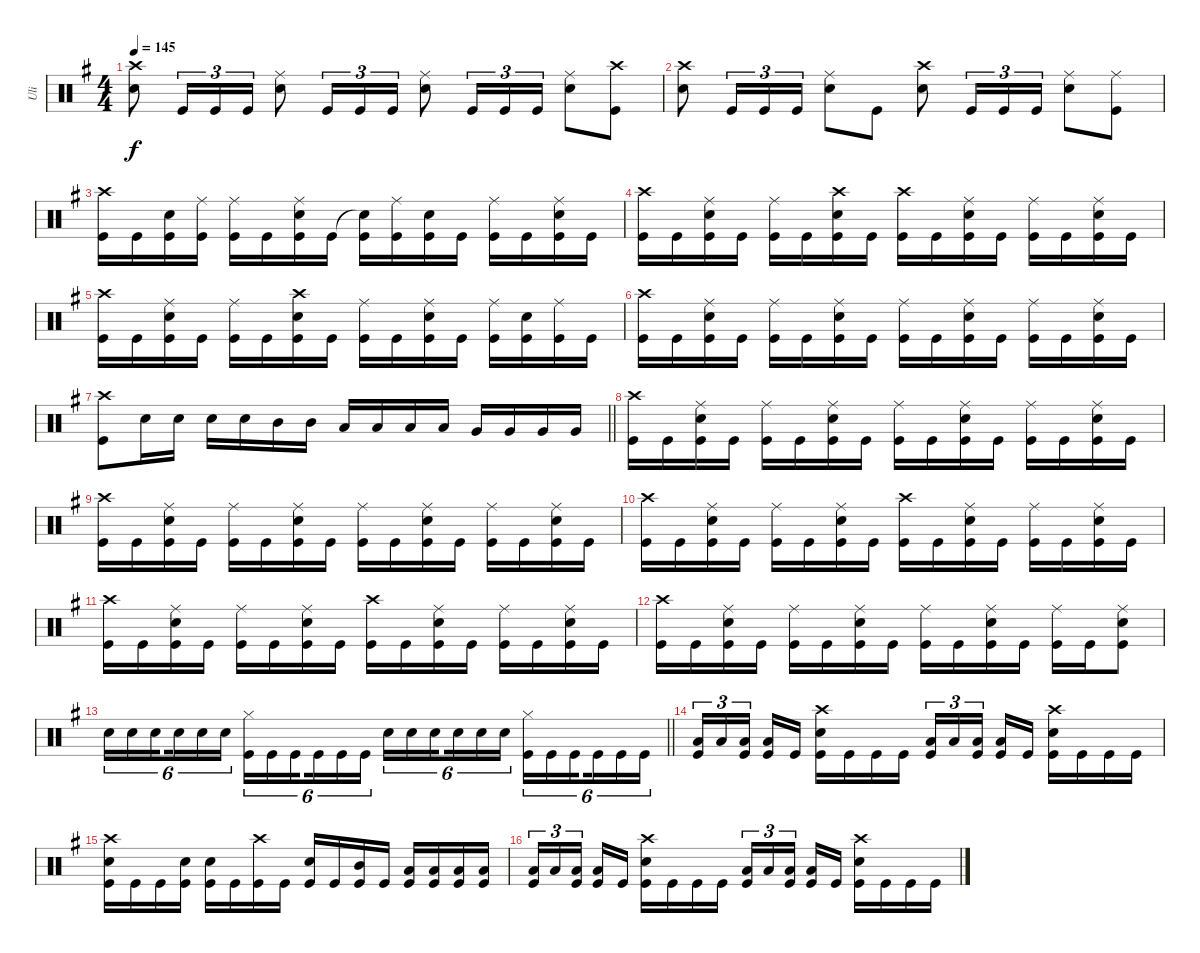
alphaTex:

\track ("Uli" "Uli") {instrument percussion}
\staff {score}
\articulation defaults
\ts (4 4)
\tempo 145
\clef neutral
\ks eminor
("Crash high (hit)" "Snare (hit) 2").8{dy f} "Kick (hit)".16{tu (3 2)} "Kick (hit)".16{tu (3 2)} "Kick (hit)".16{tu (3 2)} ("Ride (middle)" "Snare (hit) 2").8 "Kick (hit)".16{tu (3 2)} "Kick (hit)".16{tu (3 2)} "Kick (hit)".16{tu (3 2)} ("Ride (middle)" "Snare (hit) 2").8 "Kick (hit)".16{tu (3 2)} "Kick (hit)".16{tu (3 2)} "Kick (hit)".16{tu (3 2)} ("Ride (middle)" "Snare (hit) 2").8 ("Crash high (hit)" "Kick (hit)").8 |
("Crash high (hit)" "Snare (hit) 2").8 "Kick (hit)".16{tu (3 2)} "Kick (hit)".16{tu (3 2)} "Kick (hit)".16{tu (3 2)} ("Ride (middle)" "Snare (hit) 2").8 "Kick (hit)".8 ("Crash high (hit)" "Snare (hit) 2").8 "Kick (hit)".16{tu (3 2)} "Kick (hit)".16{tu (3 2)} "Kick (hit)".16{tu (3 2)} ("Ride (middle)" "Snare (hit) 2").8 ("Ride (middle)" "Kick (hit)").8 |
("Crash high (hit)" "Kick (hit)").16 "Kick (hit)".16 ("Snare (hit) 2" "Kick (hit)").16 ("Ride (middle)" "Kick (hit)").16 ("Ride (middle)" "Kick (hit)").16 "Kick (hit)".16 ("Ride (middle)" "Snare (hit) 2" "Kick (hit)").16 "Kick (hit)".16 ("Snare (hit)"{t} "Kick (hit)").16 ("Ride (middle)" "Kick (hit)").16 ("Snare (hit) 2" "Kick (hit)").16 "Kick (hit)".16 ("Ride (middle)" "Kick (hit)").16 "Kick (hit)".16 ("Ride (middle)" "Snare (hit) 2" "Kick (hit)").16 "Kick (hit)".16 |
("Crash high (hit)" "Kick (hit)").16 "Kick (hit)".16 ("Ride (middle)" "Snare (hit) 2" "Kick (hit)").16 "Kick (hit)".16 ("Ride (middle)" "Kick (hit)").16 "Kick (hit)".16 ("Crash high (hit)" "Snare (hit) 2" "Kick (hit)").16 "Kick (hit)".16 ("Crash high (hit)" "Kick (hit)").16 "Kick (hit)".16 ("Ride (middle)" "Snare (hit) 2" "Kick (hit)").16 "Kick (hit)".16 ("Ride (middle)" "Kick (hit)").16 "Kick (hit)".16 ("Ride (middle)" "Snare (hit) 2" "Kick (hit)").16 "Kick (hit)".16 |
("Crash high (hit)" "Kick (hit)").16 "Kick (hit)".16 ("Ride (middle)" "Snare (hit) 2" "Kick (hit)").16 "Kick (hit)".16 ("Ride (middle)" "Kick (hit)").16 "Kick (hit)".16 ("Crash high (hit)" "Snare (hit) 2" "Kick (hit)").16 "Kick (hit)".16 ("Ride (middle)" "Kick (hit)").16 "Kick (hit)".16 ("Ride (middle)" "Snare (hit) 2" "Kick (hit)").16 "Kick (hit)".16 ("Ride (middle)" "Kick (hit)").16 ("Snare (hit) 2" "Kick (hit)").16 ("Ride (middle)" "Kick (hit)").16 "Kick (hit)".16 |
("Crash high (hit)" "Kick (hit)").16 "Kick (hit)".16 ("Ride (middle)" "Snare (hit) 2" "Kick (hit)").16 "Kick (hit)".16 ("Ride (middle)" "Kick (hit)").16 "Kick (hit)".16 ("Ride (middle)" "Snare (hit) 2" "Kick (hit)").16 "Kick (hit)".16 ("Ride (middle)" "Kick (hit)").16 "Kick (hit)".16 ("Ride (middle)" "Snare (hit) 2" "Kick (hit)").16 "Kick (hit)".16 ("Ride (middle)" "Kick (hit)").16 "Kick (hit)".16 ("Ride (middle)" "Snare (hit) 2" "Kick (hit)").16 "Kick (hit)".16 |
\barLineRight lightlight
("Crash high (hit)" "Kick (hit)").8 "Snare (hit) 2".16 "Snare (hit) 2".16 "Snare (hit) 2".16 "Snare (hit) 2".16 "Mid Tom (hit)".16 "Mid Tom (hit)".16 "Low Tom (hit)".16 "Low Tom (hit)".16 "Low Tom (hit)".16 "Low Tom (hit)".16 "Very Low Tom (hit)".16 "Very Low Tom (hit)".16 "Very Low Tom (hit)".16 "Very Low Tom (hit)".16 |
("Crash high (hit)" "Kick (hit)").16 "Kick (hit)".16 ("Ride (middle)" "Snare (hit) 2" "Kick (hit)").16 "Kick (hit)".16 ("Ride (middle)" "Kick (hit)").16 "Kick (hit)".16 ("Ride (middle)" "Snare (hit) 2" "Kick (hit)").16 "Kick (hit)".16 ("Ride (middle)" "Kick (hit)").16 "Kick (hit)".16 ("Ride (middle)" "Snare (hit) 2" "Kick (hit)").16 "Kick (hit)".16 ("Ride (middle)" "Kick (hit)").16 "Kick (hit)".16 ("Ride (middle)" "Snare (hit) 2" "Kick (hit)").16 "Kick (hit)".16 |
("Crash high (hit)" "Kick (hit)").16 "Kick (hit)".16 ("Ride (middle)" "Snare (hit) 2" "Kick (hit)").16 "Kick (hit)".16 ("Ride (middle)" "Kick (hit)").16 "Kick (hit)".16 ("Ride (middle)" "Snare (hit) 2" "Kick (hit)").16 "Kick (hit)".16 ("Ride (middle)" "Kick (hit)").16 "Kick (hit)".16 ("Ride (middle)" "Snare (hit) 2" "Kick (hit)").16 "Kick (hit)".16 ("Ride (middle)" "Kick (hit)").16 "Kick (hit)".16 ("Ride (middle)" "Snare (hit) 2" "Kick (hit)").16 "Kick (hit)".16 |
("Crash high (hit)" "Kick (hit)").16 "Kick (hit)".16 ("Ride (middle)" "Snare (hit) 2" "Kick (hit)").16 "Kick (hit)".16 ("Ride (middle)" "Kick (hit)").16 "Kick (hit)".16 ("Ride (middle)" "Snare (hit) 2" "Kick (hit)").16 "Kick (hit)".16 ("Crash high (hit)" "Kick (hit)").16 "Kick (hit)".16 ("Ride (middle)" "Snare (hit) 2" "Kick (hit)").16 "Kick (hit)".16 ("Ride (middle)" "Kick (hit)").16 "Kick (hit)".16 ("Ride (middle)" "Snare (hit) 2" "Kick (hit)").16 "Kick (hit)".16 |
("Crash high (hit)" "Kick (hit)").16 "Kick (hit)".16 ("Ride (middle)" "Snare (hit) 2" "Kick (hit)").16 "Kick (hit)".16 ("Ride (middle)" "Kick (hit)").16 "Kick (hit)".16 ("Ride (middle)" "Snare (hit) 2" "Kick (hit)").16 "Kick (hit)".16 ("Crash high (hit)" "Kick (hit)").16 "Kick (hit)".16 ("Ride (middle)" "Snare (hit) 2" "Kick (hit)").16 "Kick (hit)".16 ("Ride (middle)" "Kick (hit)").16 "Kick (hit)".16 ("Ride (middle)" "Snare (hit) 2" "Kick (hit)").16 "Kick (hit)".16 |
("Crash high (hit)" "Kick (hit)").16 "Kick (hit)".16 ("Ride (middle)" "Snare (hit) 2" "Kick (hit)").16 "Kick (hit)".16 ("Ride (middle)" "Kick (hit)").16 "Kick (hit)".16 ("Ride (middle)" "Snare (hit) 2" "Kick (hit)").16 "Kick (hit)".16 ("Ride (middle)" "Kick (hit)").16 "Kick (hit)".16 ("Ride (middle)" "Snare (hit) 2" "Kick (hit)").16 "Kick (hit)".16 ("Ride (middle)" "Kick (hit)").16 "Kick (hit)".16 ("Ride (middle)" "Snare (hit) 2" "Kick (hit)").8 |
\barLineRight lightlight "Snare (hit) 2".16{tu (6 4)} "Snare (hit) 2".16{tu (6 4)} "Snare (hit) 2".16{tu (6 4) beam splitsecondary} "Snare (hit) 2".16{tu (6 4)} "Snare (hit) 2".16{tu (6 4)} "Snare (hit) 2".16{tu (6 4)}
("Hi-Hat (closed)" "Kick (hit)").16{tu (6 4)} "Kick (hit)".16{tu (6 4)} "Kick (hit)".16{tu (6 4) beam splitsecondary} "Kick (hit)".16{tu (6 4)} "Kick (hit)".16{tu (6 4)} "Kick (hit)".16{tu (6 4)} "Snare (hit) 2".16{tu (6 4)} "Snare (hit) 2".16{tu (6 4)} "Snare (hit) 2".16{tu (6 4) beam splitsecondary} "Snare (hit) 2".16{tu (6 4)} "Snare (hit) 2".16{tu (6 4)} "Snare (hit) 2".16{tu (6 4)} ("Hi-Hat (closed)" "Kick (hit)").16{tu (6 4)} "Kick (hit)".16{tu (6 4)} "Kick (hit)".16{tu (6 4) beam splitsecondary} "Kick (hit)".16{tu (6 4)} "Kick (hit)".16{tu (6 4)} "Kick (hit)".16{tu (6 4)} |
("Low Tom (hit)" "Kick (hit)").16{tu (3 2)} "Low Tom (hit)".16{tu (3 2)} ("Low Tom (hit)" "Kick (hit)").16{tu (3 2) beam splitsecondary} ("Low Tom (hit)" "Kick (hit)").16 "Kick (hit)".16 ("Crash high (hit)" "Snare (hit) 2" "Kick (hit)").16 "Kick (hit)".16 "Kick (hit)".16 "Kick (hit)".16 ("Low Tom (hit)" "Kick (hit)").16{tu (3 2)} "Low Tom (hit)".16{tu (3 2)} ("Low Tom (hit)" "Kick (hit)").16{tu (3 2) beam splitsecondary} ("Low Tom (hit)" "Kick (hit)").16 "Kick (hit)".16 ("Crash high (hit)" "Snare (hit) 2" "Kick (hit)").16 "Kick (hit)".16 "Kick (hit)".16 "Kick (hit)".16 |
("Crash high (hit)" "Snare (hit) 2" "Kick (hit)").16 "Kick (hit)".16 "Kick (hit)".16 ("Snare (hit) 2" "Kick (hit)").16 ("Snare (hit) 2" "Kick (hit)").16 "Kick (hit)".16 ("Crash high (hit)" "Kick (hit)").16 "Kick (hit)".16 ("Snare (hit) 2" "Kick (hit)").16 "Kick (hit)".16 ("Mid Tom (hit)" "Kick (hit)").16 "Kick (hit)".16 ("Low Tom (hit)" "Kick (hit)").16 ("Low Tom (hit)" "Kick (hit)").16 ("Low Tom (hit)" "Kick (hit)").16 ("Low Tom (hit)" "Kick (hit)").16 |
("Low Tom (hit)" "Kick (hit)").16{tu (3 2)} "Low Tom (hit)".16{tu (3 2)} ("Low Tom (hit)" "Kick (hit)").16{tu (3 2) beam splitsecondary} ("Low Tom (hit)" "Kick (hit)").16 "Kick (hit)".16 ("Crash high (hit)" "Snare (hit) 2" "Kick (hit)").16 "Kick (hit)".16 "Kick (hit)".16 "Kick (hit)".16 ("Low Tom (hit)" "Kick (hit)").16{tu (3 2)} "Low Tom (hit)".16{tu (3 2)} ("Low Tom (hit)" "Kick (hit)").16{tu (3 2) beam splitsecondary} ("Low Tom (hit)" "Kick (hit)").16 "Kick (hit)".16 ("Crash high (hit)" "Snare (hit) 2" "Kick (hit)").16 "Kick (hit)".16 "Kick (hit)".16 "Kick (hit)".16
